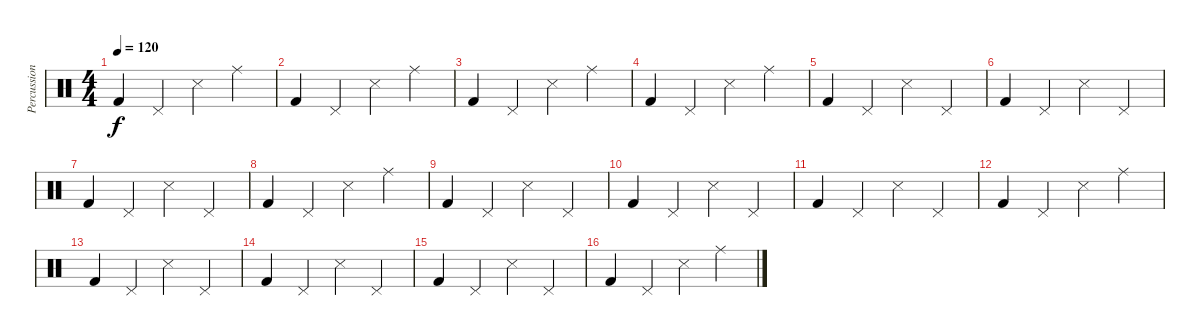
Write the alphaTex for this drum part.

\track ("Percussion" "Percussion") {instrument percussion}
\staff {score}
\articulation defaults
\ts (4 4)
\tempo 120
\clef neutral
\ks c "Kick (hit) 2".4{dy f} "Pedal Hi-Hat (hit)".4 "Snare (side stick) 3".4 "Ride (middle)".4
|
"Kick (hit) 2".4 "Pedal Hi-Hat (hit)".4 "Snare (side stick) 3".4 "Ride (middle)".4 |
"Kick (hit) 2".4 "Pedal Hi-Hat (hit)".4 "Snare (side stick) 3".4 "Ride (middle)".4 |
"Kick (hit) 2".4 "Pedal Hi-Hat (hit)".4 "Snare (side stick) 3".4 "Ride (middle)".4 |
"Kick (hit) 2".4 "Pedal Hi-Hat (hit)".4 "Snare (side stick) 3".4 "Pedal Hi-Hat (hit)".4 |
"Kick (hit) 2".4 "Pedal Hi-Hat (hit)".4 "Snare (side stick) 3".4 "Pedal Hi-Hat (hit)".4 |
"Kick (hit) 2".4 "Pedal Hi-Hat (hit)".4 "Snare (side stick) 3".4 "Pedal Hi-Hat (hit)".4 |
"Kick (hit) 2".4 "Pedal Hi-Hat (hit)".4 "Snare (side stick) 3".4 "Ride (middle)".4 |
"Kick (hit) 2".4 "Pedal Hi-Hat (hit)".4 "Snare (side stick) 3".4 "Pedal Hi-Hat (hit)".4 |
"Kick (hit) 2".4 "Pedal Hi-Hat (hit)".4 "Snare (side stick) 3".4 "Pedal Hi-Hat (hit)".4 |
"Kick (hit) 2".4 "Pedal Hi-Hat (hit)".4 "Snare (side stick) 3".4 "Pedal Hi-Hat (hit)".4 |
"Kick (hit) 2".4 "Pedal Hi-Hat (hit)".4 "Snare (side stick) 3".4 "Ride (middle)".4 |
"Kick (hit) 2".4 "Pedal Hi-Hat (hit)".4 "Snare (side stick) 3".4 "Pedal Hi-Hat (hit)".4 |
"Kick (hit) 2".4 "Pedal Hi-Hat (hit)".4 "Snare (side stick) 3".4 "Pedal Hi-Hat (hit)".4 |
"Kick (hit) 2".4 "Pedal Hi-Hat (hit)".4 "Snare (side stick) 3".4 "Pedal Hi-Hat (hit)".4 |
"Kick (hit) 2".4 "Pedal Hi-Hat (hit)".4 "Snare (side stick) 3".4 "Ride (middle)".4
